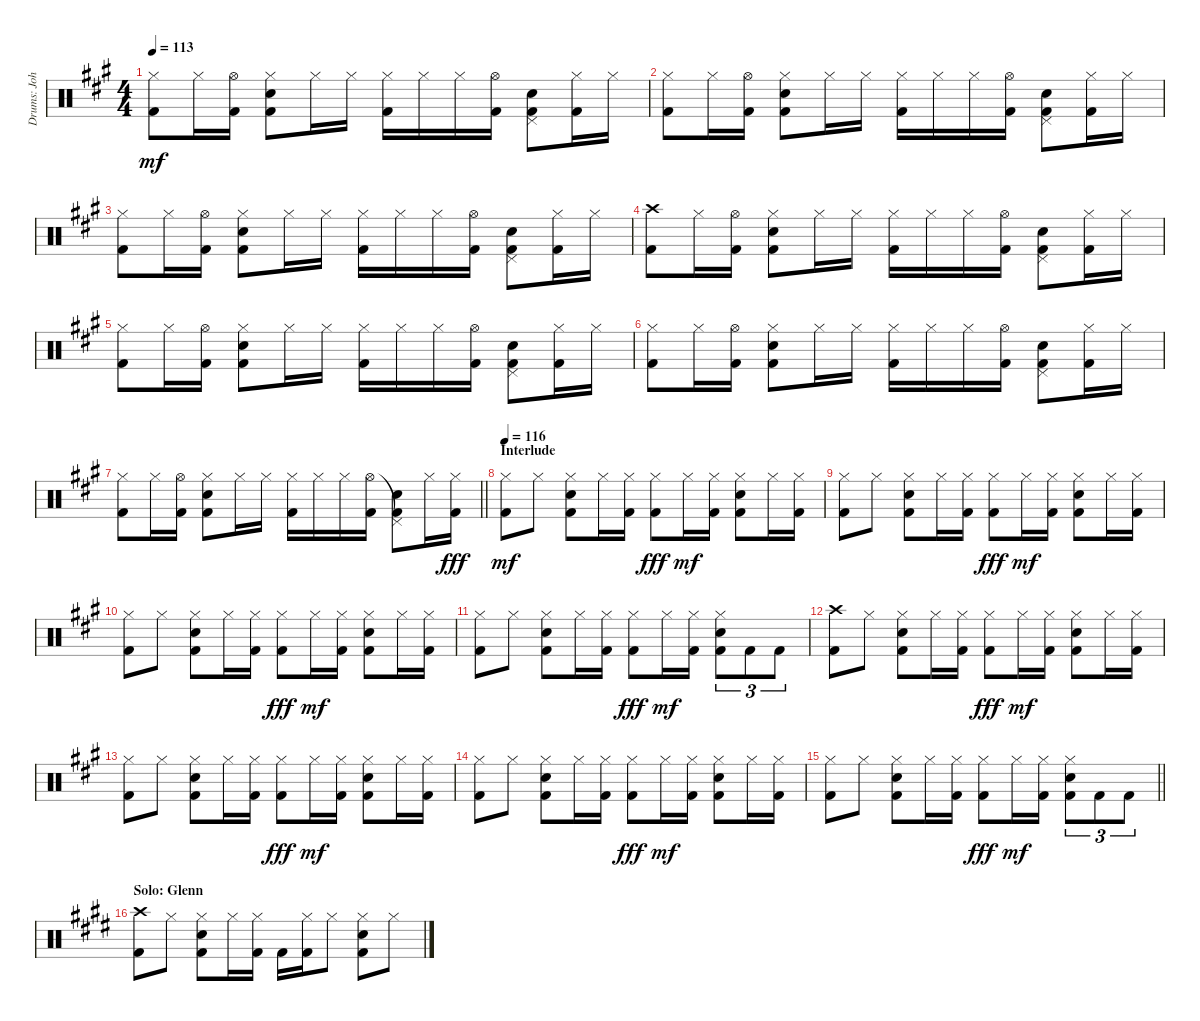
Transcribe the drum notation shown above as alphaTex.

\track ("Drums: John" "Drums: Joh") {instrument percussion}
\staff {score}
\articulation defaults
\ts (4 4)
\tempo 113
\clef neutral
\ks a
("Hi-Hat (closed)" "Kick (hit) 2").8{dy mf} "Hi-Hat (closed)".16 ("Hi-Hat (open)" "Kick (hit) 2").16 ("Hi-Hat (closed)" "Electric Snare (hit)" "Kick (hit) 2").8 "Hi-Hat (closed)".16 "Hi-Hat (closed)".16 ("Hi-Hat (closed)" "Kick (hit) 2").16 "Hi-Hat (closed)".16 "Hi-Hat (closed)".16 ("Hi-Hat (open)" "Kick (hit) 2").16 ("Pedal Hi-Hat (hit)" "Electric Snare (hit)" "Kick (hit) 2").8 ("Hi-Hat (closed)" "Kick (hit) 2").16 "Hi-Hat (closed)".16 |
("Hi-Hat (closed)" "Kick (hit) 2").8 "Hi-Hat (closed)".16 ("Hi-Hat (open)" "Kick (hit) 2").16 ("Hi-Hat (closed)" "Electric Snare (hit)" "Kick (hit) 2").8 "Hi-Hat (closed)".16 "Hi-Hat (closed)".16 ("Hi-Hat (closed)" "Kick (hit) 2").16 "Hi-Hat (closed)".16 "Hi-Hat (closed)".16 ("Hi-Hat (open)" "Kick (hit) 2").16 ("Pedal Hi-Hat (hit)" "Electric Snare (hit)" "Kick (hit) 2").8 ("Hi-Hat (closed)" "Kick (hit) 2").16 "Hi-Hat (closed)".16 |
("Hi-Hat (closed)" "Kick (hit) 2").8 "Hi-Hat (closed)".16 ("Hi-Hat (open)" "Kick (hit) 2").16 ("Hi-Hat (closed)" "Electric Snare (hit)" "Kick (hit) 2").8 "Hi-Hat (closed)".16 "Hi-Hat (closed)".16 ("Hi-Hat (closed)" "Kick (hit) 2").16 "Hi-Hat (closed)".16 "Hi-Hat (closed)".16 ("Hi-Hat (open)" "Kick (hit) 2").16 ("Pedal Hi-Hat (hit)" "Electric Snare (hit)" "Kick (hit) 2").8 ("Hi-Hat (closed)" "Kick (hit) 2").16 "Hi-Hat (closed)".16 |
("Crash high (hit)" "Kick (hit) 2").8 "Hi-Hat (closed)".16 ("Hi-Hat (open)" "Kick (hit) 2").16 ("Hi-Hat (closed)" "Electric Snare (hit)" "Kick (hit) 2").8 "Hi-Hat (closed)".16 "Hi-Hat (closed)".16 ("Hi-Hat (closed)" "Kick (hit) 2").16 "Hi-Hat (closed)".16 "Hi-Hat (closed)".16 ("Hi-Hat (open)" "Kick (hit) 2").16 ("Pedal Hi-Hat (hit)" "Electric Snare (hit)" "Kick (hit) 2").8 ("Hi-Hat (closed)" "Kick (hit) 2").16 "Hi-Hat (closed)".16 |
("Hi-Hat (closed)" "Kick (hit) 2").8 "Hi-Hat (closed)".16 ("Hi-Hat (open)" "Kick (hit) 2").16 ("Hi-Hat (closed)" "Electric Snare (hit)" "Kick (hit) 2").8 "Hi-Hat (closed)".16 "Hi-Hat (closed)".16 ("Hi-Hat (closed)" "Kick (hit) 2").16 "Hi-Hat (closed)".16 "Hi-Hat (closed)".16 ("Hi-Hat (open)" "Kick (hit) 2").16 ("Pedal Hi-Hat (hit)" "Electric Snare (hit)" "Kick (hit) 2").8 ("Hi-Hat (closed)" "Kick (hit) 2").16 "Hi-Hat (closed)".16 |
("Hi-Hat (closed)" "Kick (hit) 2").8 "Hi-Hat (closed)".16 ("Hi-Hat (open)" "Kick (hit) 2").16 ("Hi-Hat (closed)" "Electric Snare (hit)" "Kick (hit) 2").8 "Hi-Hat (closed)".16 "Hi-Hat (closed)".16 ("Hi-Hat (closed)" "Kick (hit) 2").16 "Hi-Hat (closed)".16 "Hi-Hat (closed)".16 ("Hi-Hat (open)" "Kick (hit) 2").16 ("Pedal Hi-Hat (hit)" "Electric Snare (hit)" "Kick (hit) 2").8 ("Hi-Hat (closed)" "Kick (hit) 2").16 "Hi-Hat (closed)".16 |
\barLineRight lightlight
("Hi-Hat (closed)" "Kick (hit) 2").8 "Hi-Hat (closed)".16 ("Hi-Hat (open)" "Kick (hit) 2").16 ("Hi-Hat (closed)" "Electric Snare (hit)" "Kick (hit) 2").8 "Hi-Hat (closed)".16 "Hi-Hat (closed)".16 ("Hi-Hat (closed)" "Kick (hit) 2").16 "Hi-Hat (closed)".16 "Hi-Hat (closed)".16 ("Hi-Hat (open)" "Kick (hit) 2").16 ("Pedal Hi-Hat (hit)"{t} "Electric Snare (hit)" "Kick (hit) 2").8 "Hi-Hat (closed)".16 ("Hi-Hat (closed)" "Kick (hit) 2").16{dy fff} |
\section ("" "Interlude")
\tempo 116
("Hi-Hat (closed)" "Kick (hit) 2").8{dy mf} "Hi-Hat (closed)".8 ("Hi-Hat (closed)" "Electric Snare (hit)" "Kick (hit) 2").8 "Hi-Hat (closed)".16 ("Hi-Hat (closed)" "Kick (hit) 2").16 ("Hi-Hat (closed)" "Kick (hit) 2").8{dy fff} "Hi-Hat (closed)".16{dy mf} ("Hi-Hat (closed)" "Kick (hit) 2").16 ("Hi-Hat (closed)" "Electric Snare (hit)" "Kick (hit) 2").8 "Hi-Hat (closed)".16 ("Hi-Hat (closed)" "Kick (hit) 2").16 |
("Hi-Hat (closed)" "Kick (hit) 2").8 "Hi-Hat (closed)".8 ("Hi-Hat (closed)" "Electric Snare (hit)" "Kick (hit) 2").8 "Hi-Hat (closed)".16 ("Hi-Hat (closed)" "Kick (hit) 2").16 ("Hi-Hat (closed)" "Kick (hit) 2").8{dy fff} "Hi-Hat (closed)".16{dy mf} ("Hi-Hat (closed)" "Kick (hit) 2").16 ("Hi-Hat (closed)" "Electric Snare (hit)" "Kick (hit) 2").8 "Hi-Hat (closed)".16 ("Hi-Hat (closed)" "Kick (hit) 2").16 |
("Hi-Hat (closed)" "Kick (hit) 2").8 "Hi-Hat (closed)".8 ("Hi-Hat (closed)" "Electric Snare (hit)" "Kick (hit) 2").8 "Hi-Hat (closed)".16 ("Hi-Hat (closed)" "Kick (hit) 2").16 ("Hi-Hat (closed)" "Kick (hit) 2").8{dy fff} "Hi-Hat (closed)".16{dy mf} ("Hi-Hat (closed)" "Kick (hit) 2").16 ("Hi-Hat (closed)" "Electric Snare (hit)" "Kick (hit) 2").8 "Hi-Hat (closed)".16 ("Hi-Hat (closed)" "Kick (hit) 2").16 |
("Hi-Hat (closed)" "Kick (hit) 2").8 "Hi-Hat (closed)".8 ("Hi-Hat (closed)" "Electric Snare (hit)" "Kick (hit) 2").8 "Hi-Hat (closed)".16 ("Hi-Hat (closed)" "Kick (hit) 2").16 ("Hi-Hat (closed)" "Kick (hit) 2").8{dy fff} "Hi-Hat (closed)".16{dy mf} ("Hi-Hat (closed)" "Kick (hit) 2").16 ("Hi-Hat (closed)" "Electric Snare (hit)" "Kick (hit) 2").8{tu (3 2)} "Kick (hit) 2".8{tu (3 2)} "Kick (hit) 2".8{tu (3 2)} |
("Crash high (hit)" "Kick (hit) 2").8 "Hi-Hat (closed)".8 ("Hi-Hat (closed)" "Electric Snare (hit)" "Kick (hit) 2").8 "Hi-Hat (closed)".16 ("Hi-Hat (closed)" "Kick (hit) 2").16 ("Hi-Hat (closed)" "Kick (hit) 2").8{dy fff} "Hi-Hat (closed)".16{dy mf} ("Hi-Hat (closed)" "Kick (hit) 2").16 ("Hi-Hat (closed)" "Electric Snare (hit)" "Kick (hit) 2").8 "Hi-Hat (closed)".16 ("Hi-Hat (closed)" "Kick (hit) 2").16 |
("Hi-Hat (closed)" "Kick (hit) 2").8 "Hi-Hat (closed)".8 ("Hi-Hat (closed)" "Electric Snare (hit)" "Kick (hit) 2").8 "Hi-Hat (closed)".16 ("Hi-Hat (closed)" "Kick (hit) 2").16 ("Hi-Hat (closed)" "Kick (hit) 2").8{dy fff} "Hi-Hat (closed)".16{dy mf} ("Hi-Hat (closed)" "Kick (hit) 2").16 ("Hi-Hat (closed)" "Electric Snare (hit)" "Kick (hit) 2").8 "Hi-Hat (closed)".16 ("Hi-Hat (closed)" "Kick (hit) 2").16 |
("Hi-Hat (closed)" "Kick (hit) 2").8 "Hi-Hat (closed)".8 ("Hi-Hat (closed)" "Electric Snare (hit)" "Kick (hit) 2").8 "Hi-Hat (closed)".16 ("Hi-Hat (closed)" "Kick (hit) 2").16 ("Hi-Hat (closed)" "Kick (hit) 2").8{dy fff} "Hi-Hat (closed)".16{dy mf} ("Hi-Hat (closed)" "Kick (hit) 2").16 ("Hi-Hat (closed)" "Electric Snare (hit)" "Kick (hit) 2").8 "Hi-Hat (closed)".16 ("Hi-Hat (closed)" "Kick (hit) 2").16 |
\barLineRight lightlight
("Hi-Hat (closed)" "Kick (hit) 2").8 "Hi-Hat (closed)".8 ("Hi-Hat (closed)" "Electric Snare (hit)" "Kick (hit) 2").8 "Hi-Hat (closed)".16 ("Hi-Hat (closed)" "Kick (hit) 2").16 ("Hi-Hat (closed)" "Kick (hit) 2").8{dy fff} "Hi-Hat (closed)".16{dy mf} ("Hi-Hat (closed)" "Kick (hit) 2").16 ("Hi-Hat (closed)" "Electric Snare (hit)" "Kick (hit) 2").8{tu (3 2)} "Kick (hit) 2".8{tu (3 2)} "Kick (hit) 2".8{tu (3 2)} |
\section ("" "Solo: Glenn")
\ks e
("Crash high (hit)" "Kick (hit) 2").8 "Hi-Hat (closed)".8 ("Hi-Hat (closed)" "Electric Snare (hit)" "Kick (hit) 2").8 "Hi-Hat (closed)".16 ("Hi-Hat (closed)" "Kick (hit) 2").16 "Kick (hit) 2".16 ("Hi-Hat (closed)" "Kick (hit) 2").16 "Hi-Hat (closed)".8 ("Hi-Hat (closed)" "Electric Snare (hit)" "Kick (hit) 2").8 "Hi-Hat (closed)".8
